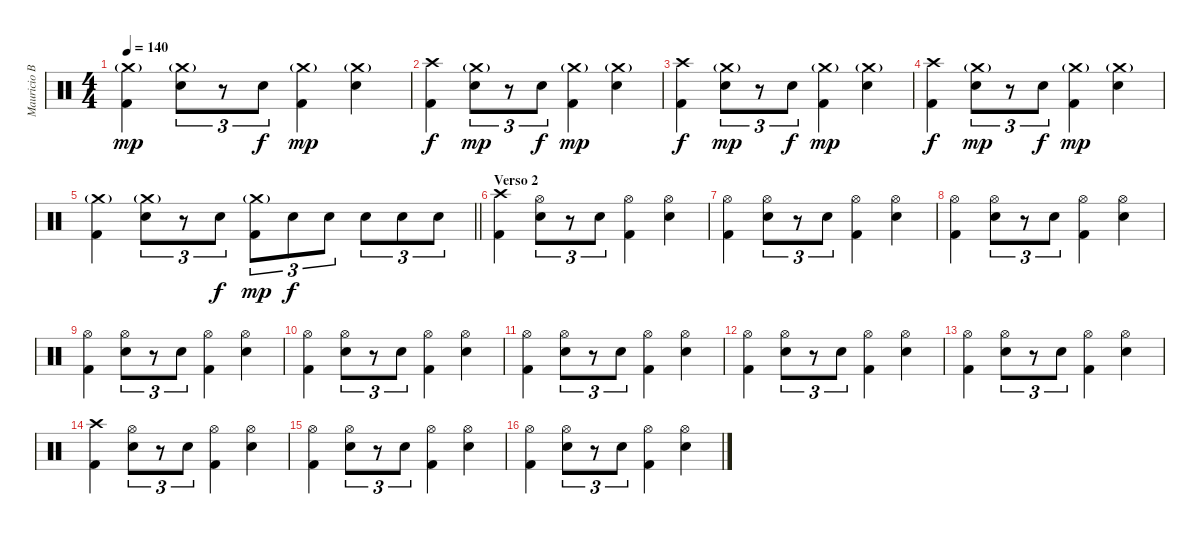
\track ("Mauricio Basualto" "Mauricio B") {instrument percussion}
\staff {score}
\articulation defaults
\ts (4 4)
\tempo 140
\clef neutral
\ks c
("Crash medium (hit)"{g} "Kick (hit) 2").4{dy mp} ("Crash medium (hit)"{g} "Electric Snare (hit)").8{tu (3 2)} r.8{tu (3 2)} "Electric Snare (hit)".8{tu (3 2) dy f} ("Crash medium (hit)"{g} "Kick (hit) 2").4{dy mp} ("Crash medium (hit)"{g} "Electric Snare (hit)").4 |
("Crash high (hit)" "Kick (hit) 2").4{dy f} ("Crash medium (hit)"{g} "Electric Snare (hit)").8{tu (3 2) dy mp} r.8{tu (3 2)} "Electric Snare (hit)".8{tu (3 2) dy f} ("Crash medium (hit)"{g} "Kick (hit) 2").4{dy mp} ("Crash medium (hit)"{g} "Electric Snare (hit)").4 |
("Crash high (hit)" "Kick (hit) 2").4{dy f} ("Crash medium (hit)"{g} "Electric Snare (hit)").8{tu (3 2) dy mp} r.8{tu (3 2)} "Electric Snare (hit)".8{tu (3 2) dy f} ("Crash medium (hit)"{g} "Kick (hit) 2").4{dy mp} ("Crash medium (hit)"{g} "Electric Snare (hit)").4 |
("Crash high (hit)" "Kick (hit) 2").4{dy f} ("Crash medium (hit)"{g} "Electric Snare (hit)").8{tu (3 2) dy mp} r.8{tu (3 2)} "Electric Snare (hit)".8{tu (3 2) dy f} ("Crash medium (hit)"{g} "Kick (hit) 2").4{dy mp} ("Crash medium (hit)"{g} "Electric Snare (hit)").4 |
\barLineRight lightlight
("Crash medium (hit)"{g} "Kick (hit) 2").4 ("Crash medium (hit)"{g} "Electric Snare (hit)").8{tu (3 2)} r.8{tu (3 2)} "Electric Snare (hit)".8{tu (3 2) dy f} ("Crash medium (hit)"{g} "Kick (hit) 2").8{tu (3 2) dy mp} "Electric Snare (hit)".8{tu (3 2) dy f} "Electric Snare (hit)".8{tu (3 2)} "Electric Snare (hit)".8{tu (3 2)} "Electric Snare (hit)".8{tu (3 2)} "Electric Snare (hit)".8{tu (3 2)} |
\section ("" "Verso 2")
("Crash high (hit)" "Kick (hit) 2").4 ("Hi-Hat (open)" "Electric Snare (hit)").8{tu (3 2)} r.8{tu (3 2)} "Electric Snare (hit)".8{tu (3 2)} ("Hi-Hat (open)" "Kick (hit) 2").4 ("Hi-Hat (open)" "Electric Snare (hit)").4 |
("Hi-Hat (open)" "Kick (hit) 2").4 ("Hi-Hat (open)" "Electric Snare (hit)").8{tu (3 2)} r.8{tu (3 2)} "Electric Snare (hit)".8{tu (3 2)} ("Hi-Hat (open)" "Kick (hit) 2").4 ("Hi-Hat (open)" "Electric Snare (hit)").4 |
("Hi-Hat (open)" "Kick (hit) 2").4 ("Hi-Hat (open)" "Electric Snare (hit)").8{tu (3 2)} r.8{tu (3 2)} "Electric Snare (hit)".8{tu (3 2)} ("Hi-Hat (open)" "Kick (hit) 2").4 ("Hi-Hat (open)" "Electric Snare (hit)").4 |
("Hi-Hat (open)" "Kick (hit) 2").4 ("Hi-Hat (open)" "Electric Snare (hit)").8{tu (3 2)} r.8{tu (3 2)} "Electric Snare (hit)".8{tu (3 2)} ("Hi-Hat (open)" "Kick (hit) 2").4 ("Hi-Hat (open)" "Electric Snare (hit)").4 |
("Hi-Hat (open)" "Kick (hit) 2").4 ("Hi-Hat (open)" "Electric Snare (hit)").8{tu (3 2)} r.8{tu (3 2)} "Electric Snare (hit)".8{tu (3 2)} ("Hi-Hat (open)" "Kick (hit) 2").4 ("Hi-Hat (open)" "Electric Snare (hit)").4 |
("Hi-Hat (open)" "Kick (hit) 2").4 ("Hi-Hat (open)" "Electric Snare (hit)").8{tu (3 2)} r.8{tu (3 2)} "Electric Snare (hit)".8{tu (3 2)} ("Hi-Hat (open)" "Kick (hit) 2").4 ("Hi-Hat (open)" "Electric Snare (hit)").4 |
("Hi-Hat (open)" "Kick (hit) 2").4 ("Hi-Hat (open)" "Electric Snare (hit)").8{tu (3 2)} r.8{tu (3 2)} "Electric Snare (hit)".8{tu (3 2)} ("Hi-Hat (open)" "Kick (hit) 2").4 ("Hi-Hat (open)" "Electric Snare (hit)").4 |
("Hi-Hat (open)" "Kick (hit) 2").4 ("Hi-Hat (open)" "Electric Snare (hit)").8{tu (3 2)} r.8{tu (3 2)} "Electric Snare (hit)".8{tu (3 2)} ("Hi-Hat (open)" "Kick (hit) 2").4 ("Hi-Hat (open)" "Electric Snare (hit)").4 |
("Crash high (hit)" "Kick (hit) 2").4 ("Hi-Hat (open)" "Electric Snare (hit)").8{tu (3 2)} r.8{tu (3 2)} "Electric Snare (hit)".8{tu (3 2)} ("Hi-Hat (open)" "Kick (hit) 2").4 ("Hi-Hat (open)" "Electric Snare (hit)").4 |
("Hi-Hat (open)" "Kick (hit) 2").4 ("Hi-Hat (open)" "Electric Snare (hit)").8{tu (3 2)} r.8{tu (3 2)} "Electric Snare (hit)".8{tu (3 2)} ("Hi-Hat (open)" "Kick (hit) 2").4 ("Hi-Hat (open)" "Electric Snare (hit)").4 |
("Hi-Hat (open)" "Kick (hit) 2").4 ("Hi-Hat (open)" "Electric Snare (hit)").8{tu (3 2)} r.8{tu (3 2)} "Electric Snare (hit)".8{tu (3 2)} ("Hi-Hat (open)" "Kick (hit) 2").4 ("Hi-Hat (open)" "Electric Snare (hit)").4
